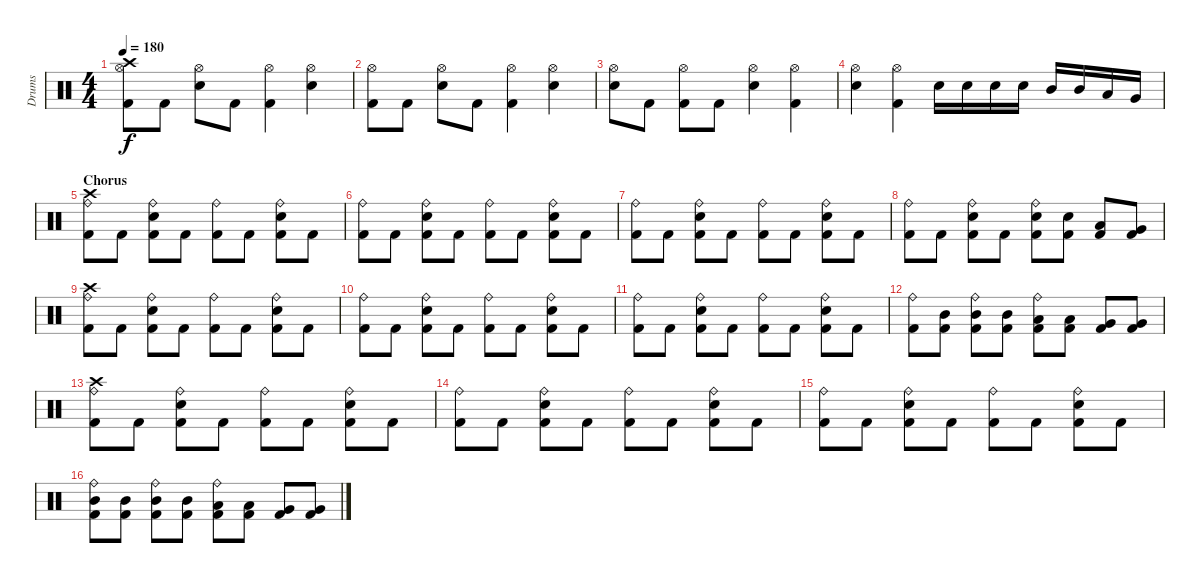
\track ("Drums" "Drums") {instrument percussion}
\staff {score}
\articulation defaults
\ts (4 4)
\tempo 180
\clef neutral
\ks c
("Hi-Hat (open)" "Kick (hit) 2" "Crash high (hit)").8{dy f} "Kick (hit) 2".8 ("Hi-Hat (open)" "Electric Snare (hit)").8 "Kick (hit) 2".8 ("Hi-Hat (open)" "Kick (hit) 2").4 ("Hi-Hat (open)" "Electric Snare (hit)").4 |
("Hi-Hat (open)" "Kick (hit) 2").8 "Kick (hit) 2".8 ("Hi-Hat (open)" "Electric Snare (hit)").8 "Kick (hit) 2".8 ("Hi-Hat (open)" "Kick (hit) 2").4 ("Hi-Hat (open)" "Electric Snare (hit)").4 |
("Hi-Hat (open)" "Electric Snare (hit)").8 "Kick (hit) 2".8 ("Hi-Hat (open)" "Kick (hit) 2").8 "Kick (hit) 2".8 ("Hi-Hat (open)" "Electric Snare (hit)").4 ("Hi-Hat (open)" "Kick (hit) 2").4 |
("Hi-Hat (open)" "Electric Snare (hit)").4 ("Hi-Hat (open)" "Kick (hit) 2").4 "Electric Snare (hit)".16 "Electric Snare (hit)".16 "Electric Snare (hit)".16 "Electric Snare (hit)".16 "Mid Tom (hit)".16 "Mid Tom (hit)".16 "Low Tom (hit)".16 "Very Low Tom (hit)".16 |
\section ("" "Chorus")
("Kick (hit) 2" "Crash high (hit)" "Ride (bell)").8 "Kick (hit) 2".8 ("Kick (hit) 2" "Electric Snare (hit)" "Ride (bell)").8 "Kick (hit) 2".8 ("Kick (hit) 2" "Ride (bell)").8 "Kick (hit) 2".8 ("Kick (hit) 2" "Electric Snare (hit)" "Ride (bell)").8 "Kick (hit) 2".8 |
("Kick (hit) 2" "Ride (bell)").8 "Kick (hit) 2".8 ("Kick (hit) 2" "Electric Snare (hit)" "Ride (bell)").8 "Kick (hit) 2".8 ("Kick (hit) 2" "Ride (bell)").8 "Kick (hit) 2".8 ("Kick (hit) 2" "Electric Snare (hit)" "Ride (bell)").8 "Kick (hit) 2".8 |
("Kick (hit) 2" "Ride (bell)").8 "Kick (hit) 2".8 ("Kick (hit) 2" "Electric Snare (hit)" "Ride (bell)").8 "Kick (hit) 2".8 ("Kick (hit) 2" "Ride (bell)").8 "Kick (hit) 2".8 ("Kick (hit) 2" "Electric Snare (hit)" "Ride (bell)").8 "Kick (hit) 2".8 |
("Kick (hit) 2" "Ride (bell)").8 "Kick (hit) 2".8 ("Kick (hit) 2" "Electric Snare (hit)" "Ride (bell)").8 "Kick (hit) 2".8 ("Kick (hit) 2" "Electric Snare (hit)" "Ride (bell)").8 ("Kick (hit) 2" "Electric Snare (hit)").8 ("Kick (hit) 2" "Low Tom (hit)").8 ("Kick (hit) 2" "Very Low Tom (hit)").8 |
("Kick (hit) 2" "Crash high (hit)" "Ride (bell)").8 "Kick (hit) 2".8 ("Kick (hit) 2" "Electric Snare (hit)" "Ride (bell)").8 "Kick (hit) 2".8 ("Kick (hit) 2" "Ride (bell)").8 "Kick (hit) 2".8 ("Kick (hit) 2" "Electric Snare (hit)" "Ride (bell)").8 "Kick (hit) 2".8 |
("Kick (hit) 2" "Ride (bell)").8 "Kick (hit) 2".8 ("Kick (hit) 2" "Electric Snare (hit)" "Ride (bell)").8 "Kick (hit) 2".8 ("Kick (hit) 2" "Ride (bell)").8 "Kick (hit) 2".8 ("Kick (hit) 2" "Electric Snare (hit)" "Ride (bell)").8 "Kick (hit) 2".8 |
("Kick (hit) 2" "Ride (bell)").8 "Kick (hit) 2".8 ("Kick (hit) 2" "Electric Snare (hit)" "Ride (bell)").8 "Kick (hit) 2".8 ("Kick (hit) 2" "Ride (bell)").8 "Kick (hit) 2".8 ("Kick (hit) 2" "Electric Snare (hit)" "Ride (bell)").8 "Kick (hit) 2".8 |
("Kick (hit) 2" "Ride (bell)").8 ("Kick (hit) 2" "Mid Tom (hit)").8 ("Kick (hit) 2" "Mid Tom (hit)" "Ride (bell)").8 ("Kick (hit) 2" "Mid Tom (hit)").8 ("Kick (hit) 2" "Low Tom (hit)" "Ride (bell)").8 ("Kick (hit) 2" "Low Tom (hit)").8 ("Kick (hit) 2" "Very Low Tom (hit)").8 ("Kick (hit) 2" "Very Low Tom (hit)").8 |
("Kick (hit) 2" "Crash high (hit)" "Ride (bell)").8 "Kick (hit) 2".8 ("Kick (hit) 2" "Electric Snare (hit)" "Ride (bell)").8 "Kick (hit) 2".8 ("Kick (hit) 2" "Ride (bell)").8 "Kick (hit) 2".8 ("Kick (hit) 2" "Electric Snare (hit)" "Ride (bell)").8 "Kick (hit) 2".8 |
("Kick (hit) 2" "Ride (bell)").8 "Kick (hit) 2".8 ("Kick (hit) 2" "Electric Snare (hit)" "Ride (bell)").8 "Kick (hit) 2".8 ("Kick (hit) 2" "Ride (bell)").8 "Kick (hit) 2".8 ("Kick (hit) 2" "Electric Snare (hit)" "Ride (bell)").8 "Kick (hit) 2".8 |
("Kick (hit) 2" "Ride (bell)").8 "Kick (hit) 2".8 ("Kick (hit) 2" "Electric Snare (hit)" "Ride (bell)").8 "Kick (hit) 2".8 ("Kick (hit) 2" "Ride (bell)").8 "Kick (hit) 2".8 ("Kick (hit) 2" "Electric Snare (hit)" "Ride (bell)").8 "Kick (hit) 2".8 |
("Kick (hit) 2" "Mid Tom (hit)" "Ride (bell)").8 ("Kick (hit) 2" "Mid Tom (hit)").8 ("Kick (hit) 2" "Mid Tom (hit)" "Ride (bell)").8 ("Kick (hit) 2" "Mid Tom (hit)").8 ("Kick (hit) 2" "Low Tom (hit)" "Ride (bell)").8 ("Kick (hit) 2" "Low Tom (hit)").8 ("Kick (hit) 2" "Very Low Tom (hit)").8 ("Kick (hit) 2" "Very Low Tom (hit)").8
